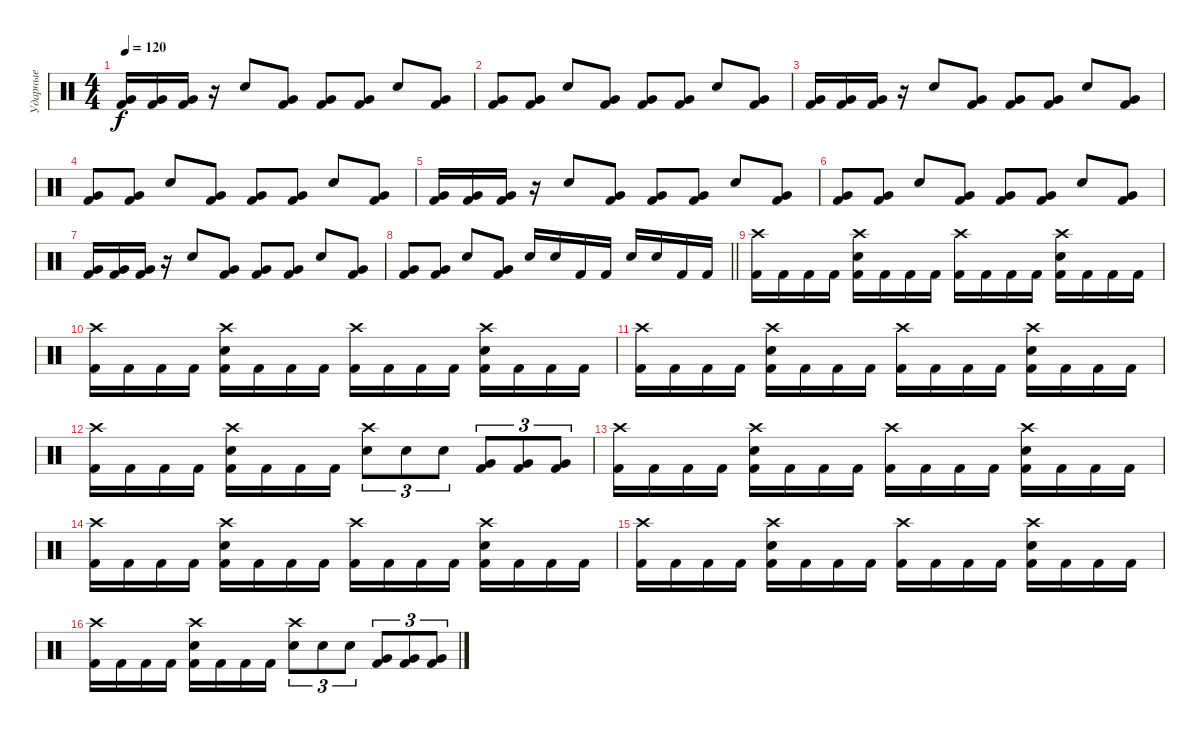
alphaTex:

\track ("Ударные" "Ударные") {instrument percussion}
\staff {score}
\articulation defaults
\ts (4 4)
\tempo 120
\clef neutral
\ks c
("Very Low Tom (hit)" "Kick (hit) 2").16{dy f} ("Very Low Tom (hit)" "Kick (hit) 2").16 ("Very Low Tom (hit)" "Kick (hit) 2").16 r.16 "Electric Snare (hit)".8 ("Very Low Tom (hit)" "Kick (hit) 2").8 ("Very Low Tom (hit)" "Kick (hit) 2").8 ("Very Low Tom (hit)" "Kick (hit) 2").8 "Electric Snare (hit)".8 ("Very Low Tom (hit)" "Kick (hit) 2").8 |
("Very Low Tom (hit)" "Kick (hit) 2").8 ("Very Low Tom (hit)" "Kick (hit) 2").8 "Electric Snare (hit)".8 ("Very Low Tom (hit)" "Kick (hit) 2").8 ("Very Low Tom (hit)" "Kick (hit) 2").8 ("Very Low Tom (hit)" "Kick (hit) 2").8 "Electric Snare (hit)".8 ("Very Low Tom (hit)" "Kick (hit) 2").8 |
("Very Low Tom (hit)" "Kick (hit) 2").16 ("Very Low Tom (hit)" "Kick (hit) 2").16 ("Very Low Tom (hit)" "Kick (hit) 2").16 r.16 "Electric Snare (hit)".8 ("Very Low Tom (hit)" "Kick (hit) 2").8 ("Very Low Tom (hit)" "Kick (hit) 2").8 ("Very Low Tom (hit)" "Kick (hit) 2").8 "Electric Snare (hit)".8 ("Very Low Tom (hit)" "Kick (hit) 2").8 |
("Very Low Tom (hit)" "Kick (hit) 2").8 ("Very Low Tom (hit)" "Kick (hit) 2").8 "Electric Snare (hit)".8 ("Very Low Tom (hit)" "Kick (hit) 2").8 ("Very Low Tom (hit)" "Kick (hit) 2").8 ("Very Low Tom (hit)" "Kick (hit) 2").8 "Electric Snare (hit)".8 ("Very Low Tom (hit)" "Kick (hit) 2").8 |
("Very Low Tom (hit)" "Kick (hit) 2").16 ("Very Low Tom (hit)" "Kick (hit) 2").16 ("Very Low Tom (hit)" "Kick (hit) 2").16 r.16 "Electric Snare (hit)".8 ("Very Low Tom (hit)" "Kick (hit) 2").8 ("Very Low Tom (hit)" "Kick (hit) 2").8 ("Very Low Tom (hit)" "Kick (hit) 2").8 "Electric Snare (hit)".8 ("Very Low Tom (hit)" "Kick (hit) 2").8 |
("Very Low Tom (hit)" "Kick (hit) 2").8 ("Very Low Tom (hit)" "Kick (hit) 2").8 "Electric Snare (hit)".8 ("Very Low Tom (hit)" "Kick (hit) 2").8 ("Very Low Tom (hit)" "Kick (hit) 2").8 ("Very Low Tom (hit)" "Kick (hit) 2").8 "Electric Snare (hit)".8 ("Very Low Tom (hit)" "Kick (hit) 2").8 |
("Very Low Tom (hit)" "Kick (hit) 2").16 ("Very Low Tom (hit)" "Kick (hit) 2").16 ("Very Low Tom (hit)" "Kick (hit) 2").16 r.16 "Electric Snare (hit)".8 ("Very Low Tom (hit)" "Kick (hit) 2").8 ("Very Low Tom (hit)" "Kick (hit) 2").8 ("Very Low Tom (hit)" "Kick (hit) 2").8 "Electric Snare (hit)".8 ("Very Low Tom (hit)" "Kick (hit) 2").8 |
\barLineRight lightlight
("Very Low Tom (hit)" "Kick (hit) 2").8 ("Very Low Tom (hit)" "Kick (hit) 2").8 "Electric Snare (hit)".8 ("Very Low Tom (hit)" "Kick (hit) 2").8 "Electric Snare (hit)".16 "Electric Snare (hit)".16 "Kick (hit) 2".16 "Kick (hit) 2".16 "Electric Snare (hit)".16 "Electric Snare (hit)".16 "Kick (hit) 2".16 "Kick (hit) 2".16 |
\section ("" "")
("Crash high (hit)" "Kick (hit) 2").16 "Kick (hit) 2".16 "Kick (hit) 2".16 "Kick (hit) 2".16 ("Crash high (hit)" "Electric Snare (hit)" "Kick (hit) 2").16 "Kick (hit) 2".16 "Kick (hit) 2".16 "Kick (hit) 2".16 ("Crash high (hit)" "Kick (hit) 2").16 "Kick (hit) 2".16 "Kick (hit) 2".16 "Kick (hit) 2".16 ("Crash high (hit)" "Electric Snare (hit)" "Kick (hit) 2").16 "Kick (hit) 2".16 "Kick (hit) 2".16 "Kick (hit) 2".16 |
("Crash high (hit)" "Kick (hit) 2").16 "Kick (hit) 2".16 "Kick (hit) 2".16 "Kick (hit) 2".16 ("Crash high (hit)" "Electric Snare (hit)" "Kick (hit) 2").16 "Kick (hit) 2".16 "Kick (hit) 2".16 "Kick (hit) 2".16 ("Crash high (hit)" "Kick (hit) 2").16 "Kick (hit) 2".16 "Kick (hit) 2".16 "Kick (hit) 2".16 ("Crash high (hit)" "Electric Snare (hit)" "Kick (hit) 2").16 "Kick (hit) 2".16 "Kick (hit) 2".16 "Kick (hit) 2".16 |
("Crash high (hit)" "Kick (hit) 2").16 "Kick (hit) 2".16 "Kick (hit) 2".16 "Kick (hit) 2".16 ("Crash high (hit)" "Electric Snare (hit)" "Kick (hit) 2").16 "Kick (hit) 2".16 "Kick (hit) 2".16 "Kick (hit) 2".16 ("Crash high (hit)" "Kick (hit) 2").16 "Kick (hit) 2".16 "Kick (hit) 2".16 "Kick (hit) 2".16 ("Crash high (hit)" "Electric Snare (hit)" "Kick (hit) 2").16 "Kick (hit) 2".16 "Kick (hit) 2".16 "Kick (hit) 2".16 |
("Crash high (hit)" "Kick (hit) 2").16 "Kick (hit) 2".16 "Kick (hit) 2".16 "Kick (hit) 2".16 ("Crash high (hit)" "Electric Snare (hit)" "Kick (hit) 2").16 "Kick (hit) 2".16 "Kick (hit) 2".16 "Kick (hit) 2".16 ("Crash high (hit)" "Electric Snare (hit)").8{tu (3 2)} "Electric Snare (hit)".8{tu (3 2)} "Electric Snare (hit)".8{tu (3 2)} ("Very Low Tom (hit)" "Kick (hit) 2").8{tu (3 2)} ("Very Low Tom (hit)" "Kick (hit) 2").8{tu (3 2)} ("Very Low Tom (hit)" "Kick (hit) 2").8{tu (3 2)} |
("Crash high (hit)" "Kick (hit) 2").16 "Kick (hit) 2".16 "Kick (hit) 2".16 "Kick (hit) 2".16 ("Crash high (hit)" "Electric Snare (hit)" "Kick (hit) 2").16 "Kick (hit) 2".16 "Kick (hit) 2".16 "Kick (hit) 2".16 ("Crash high (hit)" "Kick (hit) 2").16 "Kick (hit) 2".16 "Kick (hit) 2".16 "Kick (hit) 2".16 ("Crash high (hit)" "Electric Snare (hit)" "Kick (hit) 2").16 "Kick (hit) 2".16 "Kick (hit) 2".16 "Kick (hit) 2".16 |
("Crash high (hit)" "Kick (hit) 2").16 "Kick (hit) 2".16 "Kick (hit) 2".16 "Kick (hit) 2".16 ("Crash high (hit)" "Electric Snare (hit)" "Kick (hit) 2").16 "Kick (hit) 2".16 "Kick (hit) 2".16 "Kick (hit) 2".16 ("Crash high (hit)" "Kick (hit) 2").16 "Kick (hit) 2".16 "Kick (hit) 2".16 "Kick (hit) 2".16 ("Crash high (hit)" "Electric Snare (hit)" "Kick (hit) 2").16 "Kick (hit) 2".16 "Kick (hit) 2".16 "Kick (hit) 2".16 |
("Crash high (hit)" "Kick (hit) 2").16 "Kick (hit) 2".16 "Kick (hit) 2".16 "Kick (hit) 2".16 ("Crash high (hit)" "Electric Snare (hit)" "Kick (hit) 2").16 "Kick (hit) 2".16 "Kick (hit) 2".16 "Kick (hit) 2".16 ("Crash high (hit)" "Kick (hit) 2").16 "Kick (hit) 2".16 "Kick (hit) 2".16 "Kick (hit) 2".16 ("Crash high (hit)" "Electric Snare (hit)" "Kick (hit) 2").16 "Kick (hit) 2".16 "Kick (hit) 2".16 "Kick (hit) 2".16 |
("Crash high (hit)" "Kick (hit) 2").16 "Kick (hit) 2".16 "Kick (hit) 2".16 "Kick (hit) 2".16 ("Crash high (hit)" "Electric Snare (hit)" "Kick (hit) 2").16 "Kick (hit) 2".16 "Kick (hit) 2".16 "Kick (hit) 2".16 ("Crash high (hit)" "Electric Snare (hit)").8{tu (3 2)} "Electric Snare (hit)".8{tu (3 2)} "Electric Snare (hit)".8{tu (3 2)} ("Very Low Tom (hit)" "Kick (hit) 2").8{tu (3 2)} ("Very Low Tom (hit)" "Kick (hit) 2").8{tu (3 2)} ("Very Low Tom (hit)" "Kick (hit) 2").8{tu (3 2)}
